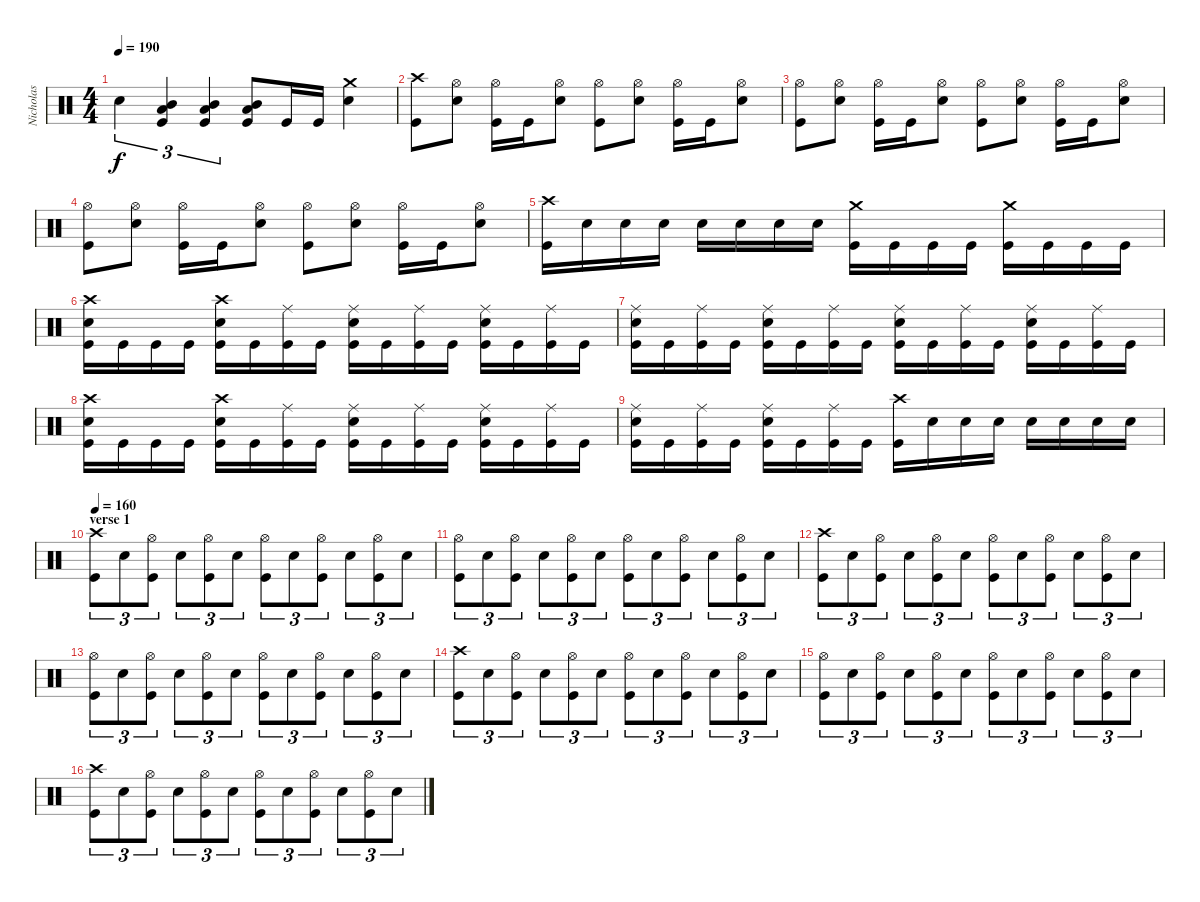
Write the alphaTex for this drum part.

\track ("Nicholas" "Nicholas") {instrument percussion}
\staff {score}
\articulation defaults
\ts (4 4)
\tempo 190
\clef neutral
\ks c "Electric Snare (hit)".4{tu (3 2) dy f}
("Mid Tom (hit)" "Low Tom (hit)" "Kick (hit)").4{tu (3 2)} ("Mid Tom (hit)" "Low Tom (hit)" "Kick (hit)").4{tu (3 2)} ("Mid Tom (hit)" "Low Tom (hit)" "Kick (hit)").8 "Kick (hit)".16 "Kick (hit)".16 ("Crash medium (hit)" "Electric Snare (hit)").4 |
("Crash high (hit)" "Kick (hit)").8 ("Hi-Hat (open)" "Electric Snare (hit)").8 ("Hi-Hat (open)" "Kick (hit)").16 "Kick (hit)".16 ("Hi-Hat (open)" "Electric Snare (hit)").8 ("Hi-Hat (open)" "Kick (hit)").8 ("Hi-Hat (open)" "Electric Snare (hit)").8 ("Hi-Hat (open)" "Kick (hit)").16 "Kick (hit)".16 ("Hi-Hat (open)" "Electric Snare (hit)").8 |
("Hi-Hat (open)" "Kick (hit)").8 ("Hi-Hat (open)" "Electric Snare (hit)").8 ("Hi-Hat (open)" "Kick (hit)").16 "Kick (hit)".16 ("Hi-Hat (open)" "Electric Snare (hit)").8 ("Hi-Hat (open)" "Kick (hit)").8 ("Hi-Hat (open)" "Electric Snare (hit)").8 ("Hi-Hat (open)" "Kick (hit)").16 "Kick (hit)".16 ("Hi-Hat (open)" "Electric Snare (hit)").8 |
("Hi-Hat (open)" "Kick (hit)").8 ("Hi-Hat (open)" "Electric Snare (hit)").8 ("Hi-Hat (open)" "Kick (hit)").16 "Kick (hit)".16 ("Hi-Hat (open)" "Electric Snare (hit)").8 ("Hi-Hat (open)" "Kick (hit)").8 ("Hi-Hat (open)" "Electric Snare (hit)").8 ("Hi-Hat (open)" "Kick (hit)").16 "Kick (hit)".16 ("Hi-Hat (open)" "Electric Snare (hit)").8 |
("Crash high (hit)" "Kick (hit)").16 "Electric Snare (hit)".16 "Electric Snare (hit)".16 "Electric Snare (hit)".16 "Electric Snare (hit)".16 "Electric Snare (hit)".16 "Electric Snare (hit)".16 "Electric Snare (hit)".16 ("Crash medium (hit)" "Kick (hit)").16 "Kick (hit)".16 "Kick (hit)".16 "Kick (hit)".16 ("Crash medium (hit)" "Kick (hit)").16 "Kick (hit)".16 "Kick (hit)".16 "Kick (hit)".16 |
("Crash high (hit)" "Electric Snare (hit)" "Kick (hit)").16 "Kick (hit)".16 "Kick (hit)".16 "Kick (hit)".16 ("Crash high (hit)" "Electric Snare (hit)" "Kick (hit)").16 "Kick (hit)".16 ("Ride (middle)" "Kick (hit)").16 "Kick (hit)".16 ("Ride (middle)" "Electric Snare (hit)" "Kick (hit)").16 "Kick (hit)".16 ("Ride (middle)" "Kick (hit)").16 "Kick (hit)".16 ("Ride (middle)" "Electric Snare (hit)" "Kick (hit)").16 "Kick (hit)".16 ("Ride (middle)" "Kick (hit)").16 "Kick (hit)".16 |
("Ride (middle)" "Electric Snare (hit)" "Kick (hit)").16 "Kick (hit)".16 ("Ride (middle)" "Kick (hit)").16 "Kick (hit)".16 ("Ride (middle)" "Electric Snare (hit)" "Kick (hit)").16 "Kick (hit)".16 ("Ride (middle)" "Kick (hit)").16 "Kick (hit)".16 ("Ride (middle)" "Electric Snare (hit)" "Kick (hit)").16 "Kick (hit)".16 ("Ride (middle)" "Kick (hit)").16 "Kick (hit)".16 ("Ride (middle)" "Electric Snare (hit)" "Kick (hit)").16 "Kick (hit)".16 ("Ride (middle)" "Kick (hit)").16 "Kick (hit)".16 |
("Crash high (hit)" "Electric Snare (hit)" "Kick (hit)").16 "Kick (hit)".16 "Kick (hit)".16 "Kick (hit)".16 ("Crash high (hit)" "Electric Snare (hit)" "Kick (hit)").16 "Kick (hit)".16 ("Ride (middle)" "Kick (hit)").16 "Kick (hit)".16 ("Ride (middle)" "Electric Snare (hit)" "Kick (hit)").16 "Kick (hit)".16 ("Ride (middle)" "Kick (hit)").16 "Kick (hit)".16 ("Ride (middle)" "Electric Snare (hit)" "Kick (hit)").16 "Kick (hit)".16 ("Ride (middle)" "Kick (hit)").16 "Kick (hit)".16 |
("Ride (middle)" "Electric Snare (hit)" "Kick (hit)").16 "Kick (hit)".16 ("Ride (middle)" "Kick (hit)").16 "Kick (hit)".16 ("Ride (middle)" "Electric Snare (hit)" "Kick (hit)").16 "Kick (hit)".16 ("Ride (middle)" "Kick (hit)").16 "Kick (hit)".16 ("Crash high (hit)" "Kick (hit)").16 "Electric Snare (hit)".16 "Electric Snare (hit)".16 "Electric Snare (hit)".16 "Electric Snare (hit)".16 "Electric Snare (hit)".16 "Electric Snare (hit)".16 "Electric Snare (hit)".16 |
\section ("" "verse 1 ")
\tempo 160
("Crash high (hit)" "Kick (hit)").8{tu (3 2)} "Electric Snare (hit)".8{tu (3 2)} ("Hi-Hat (open)" "Kick (hit)").8{tu (3 2)} "Electric Snare (hit)".8{tu (3 2)} ("Hi-Hat (open)" "Kick (hit)").8{tu (3 2)} "Electric Snare (hit)".8{tu (3 2)} ("Hi-Hat (open)" "Kick (hit)").8{tu (3 2)} "Electric Snare (hit)".8{tu (3 2)} ("Hi-Hat (open)" "Kick (hit)").8{tu (3 2)} "Electric Snare (hit)".8{tu (3 2)} ("Hi-Hat (open)" "Kick (hit)").8{tu (3 2)} "Electric Snare (hit)".8{tu (3 2)} |
("Hi-Hat (open)" "Kick (hit)").8{tu (3 2)} "Electric Snare (hit)".8{tu (3 2)} ("Hi-Hat (open)" "Kick (hit)").8{tu (3 2)} "Electric Snare (hit)".8{tu (3 2)} ("Hi-Hat (open)" "Kick (hit)").8{tu (3 2)} "Electric Snare (hit)".8{tu (3 2)} ("Hi-Hat (open)" "Kick (hit)").8{tu (3 2)} "Electric Snare (hit)".8{tu (3 2)} ("Hi-Hat (open)" "Kick (hit)").8{tu (3 2)} "Electric Snare (hit)".8{tu (3 2)} ("Hi-Hat (open)" "Kick (hit)").8{tu (3 2)} "Electric Snare (hit)".8{tu (3 2)} |
("Crash high (hit)" "Kick (hit)").8{tu (3 2)} "Electric Snare (hit)".8{tu (3 2)} ("Hi-Hat (open)" "Kick (hit)").8{tu (3 2)} "Electric Snare (hit)".8{tu (3 2)} ("Hi-Hat (open)" "Kick (hit)").8{tu (3 2)} "Electric Snare (hit)".8{tu (3 2)} ("Hi-Hat (open)" "Kick (hit)").8{tu (3 2)} "Electric Snare (hit)".8{tu (3 2)} ("Hi-Hat (open)" "Kick (hit)").8{tu (3 2)} "Electric Snare (hit)".8{tu (3 2)} ("Hi-Hat (open)" "Kick (hit)").8{tu (3 2)} "Electric Snare (hit)".8{tu (3 2)} |
("Hi-Hat (open)" "Kick (hit)").8{tu (3 2)} "Electric Snare (hit)".8{tu (3 2)} ("Hi-Hat (open)" "Kick (hit)").8{tu (3 2)} "Electric Snare (hit)".8{tu (3 2)} ("Hi-Hat (open)" "Kick (hit)").8{tu (3 2)} "Electric Snare (hit)".8{tu (3 2)} ("Hi-Hat (open)" "Kick (hit)").8{tu (3 2)} "Electric Snare (hit)".8{tu (3 2)} ("Hi-Hat (open)" "Kick (hit)").8{tu (3 2)} "Electric Snare (hit)".8{tu (3 2)} ("Hi-Hat (open)" "Kick (hit)").8{tu (3 2)} "Electric Snare (hit)".8{tu (3 2)} |
("Crash high (hit)" "Kick (hit)").8{tu (3 2)} "Electric Snare (hit)".8{tu (3 2)} ("Hi-Hat (open)" "Kick (hit)").8{tu (3 2)} "Electric Snare (hit)".8{tu (3 2)} ("Hi-Hat (open)" "Kick (hit)").8{tu (3 2)} "Electric Snare (hit)".8{tu (3 2)} ("Hi-Hat (open)" "Kick (hit)").8{tu (3 2)} "Electric Snare (hit)".8{tu (3 2)} ("Hi-Hat (open)" "Kick (hit)").8{tu (3 2)} "Electric Snare (hit)".8{tu (3 2)} ("Hi-Hat (open)" "Kick (hit)").8{tu (3 2)} "Electric Snare (hit)".8{tu (3 2)} |
("Hi-Hat (open)" "Kick (hit)").8{tu (3 2)} "Electric Snare (hit)".8{tu (3 2)} ("Hi-Hat (open)" "Kick (hit)").8{tu (3 2)} "Electric Snare (hit)".8{tu (3 2)} ("Hi-Hat (open)" "Kick (hit)").8{tu (3 2)} "Electric Snare (hit)".8{tu (3 2)} ("Hi-Hat (open)" "Kick (hit)").8{tu (3 2)} "Electric Snare (hit)".8{tu (3 2)} ("Hi-Hat (open)" "Kick (hit)").8{tu (3 2)} "Electric Snare (hit)".8{tu (3 2)} ("Hi-Hat (open)" "Kick (hit)").8{tu (3 2)} "Electric Snare (hit)".8{tu (3 2)} |
("Crash high (hit)" "Kick (hit)").8{tu (3 2)} "Electric Snare (hit)".8{tu (3 2)} ("Hi-Hat (open)" "Kick (hit)").8{tu (3 2)} "Electric Snare (hit)".8{tu (3 2)} ("Hi-Hat (open)" "Kick (hit)").8{tu (3 2)} "Electric Snare (hit)".8{tu (3 2)} ("Hi-Hat (open)" "Kick (hit)").8{tu (3 2)} "Electric Snare (hit)".8{tu (3 2)} ("Hi-Hat (open)" "Kick (hit)").8{tu (3 2)} "Electric Snare (hit)".8{tu (3 2)} ("Hi-Hat (open)" "Kick (hit)").8{tu (3 2)} "Electric Snare (hit)".8{tu (3 2)}
